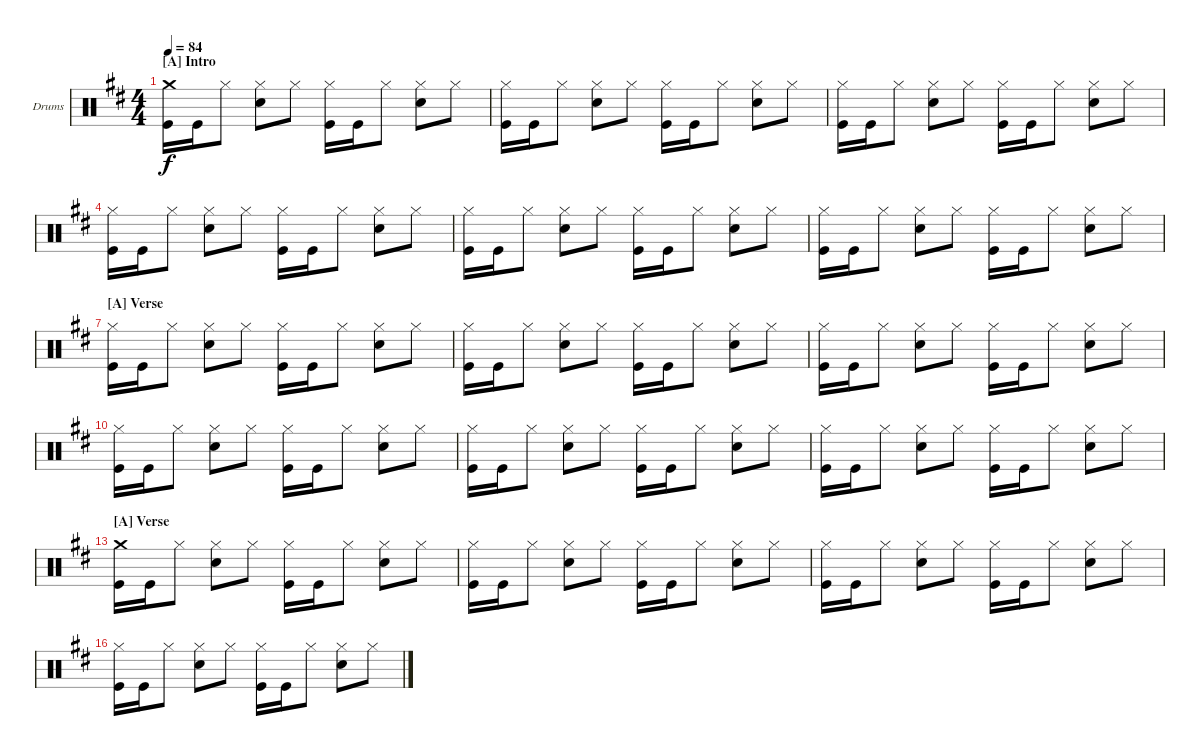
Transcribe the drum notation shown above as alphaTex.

\bracketExtendMode nobrackets
\firstSystemTrackNameOrientation horizontal
\otherSystemsTrackNameOrientation horizontal
\defaultBarNumberDisplay FirstOfSystem
\track ("Drumkit" "Drums") {instrument percussion}
\staff {score}
\articulation defaults
\ts (4 4)
\beaming (8 2 2 2 2)
\section ("A" "Intro")
\tempo 84
\clef neutral
\ks d
("Kick (hit)" "Crash medium (hit)").16{dy f} "Kick (hit)".16 "Hi-Hat (closed)".8 ("Snare (hit) 2" "Hi-Hat (closed)").8 "Hi-Hat (closed)".8 ("Kick (hit)" "Hi-Hat (closed)").16 "Kick (hit)".16 "Hi-Hat (closed)".8 ("Snare (hit) 2" "Hi-Hat (closed)").8 "Hi-Hat (closed)".8 |
("Kick (hit)" "Hi-Hat (closed)").16 "Kick (hit)".16 "Hi-Hat (closed)".8 ("Snare (hit) 2" "Hi-Hat (closed)").8 "Hi-Hat (closed)".8 ("Kick (hit)" "Hi-Hat (closed)").16 "Kick (hit)".16 "Hi-Hat (closed)".8 ("Snare (hit) 2" "Hi-Hat (closed)").8 "Hi-Hat (closed)".8 |
("Kick (hit)" "Hi-Hat (closed)").16 "Kick (hit)".16 "Hi-Hat (closed)".8 ("Snare (hit) 2" "Hi-Hat (closed)").8 "Hi-Hat (closed)".8 ("Kick (hit)" "Hi-Hat (closed)").16 "Kick (hit)".16 "Hi-Hat (closed)".8 ("Snare (hit) 2" "Hi-Hat (closed)").8 "Hi-Hat (closed)".8 |
("Kick (hit)" "Hi-Hat (closed)").16 "Kick (hit)".16 "Hi-Hat (closed)".8 ("Snare (hit) 2" "Hi-Hat (closed)").8 "Hi-Hat (closed)".8 ("Kick (hit)" "Hi-Hat (closed)").16 "Kick (hit)".16 "Hi-Hat (closed)".8 ("Snare (hit) 2" "Hi-Hat (closed)").8 "Hi-Hat (closed)".8 |
("Kick (hit)" "Hi-Hat (closed)").16 "Kick (hit)".16 "Hi-Hat (closed)".8 ("Snare (hit) 2" "Hi-Hat (closed)").8 "Hi-Hat (closed)".8 ("Kick (hit)" "Hi-Hat (closed)").16 "Kick (hit)".16 "Hi-Hat (closed)".8 ("Snare (hit) 2" "Hi-Hat (closed)").8 "Hi-Hat (closed)".8 |
("Kick (hit)" "Hi-Hat (closed)").16 "Kick (hit)".16 "Hi-Hat (closed)".8 ("Snare (hit) 2" "Hi-Hat (closed)").8 "Hi-Hat (closed)".8 ("Kick (hit)" "Hi-Hat (closed)").16 "Kick (hit)".16 "Hi-Hat (closed)".8 ("Snare (hit) 2" "Hi-Hat (closed)").8 "Hi-Hat (closed)".8 |
\section ("A" "Verse")
("Kick (hit)" "Hi-Hat (closed)").16 "Kick (hit)".16 "Hi-Hat (closed)".8 ("Snare (hit) 2" "Hi-Hat (closed)").8 "Hi-Hat (closed)".8 ("Kick (hit)" "Hi-Hat (closed)").16 "Kick (hit)".16 "Hi-Hat (closed)".8 ("Snare (hit) 2" "Hi-Hat (closed)").8 "Hi-Hat (closed)".8 |
("Kick (hit)" "Hi-Hat (closed)").16 "Kick (hit)".16 "Hi-Hat (closed)".8 ("Snare (hit) 2" "Hi-Hat (closed)").8 "Hi-Hat (closed)".8 ("Kick (hit)" "Hi-Hat (closed)").16 "Kick (hit)".16 "Hi-Hat (closed)".8 ("Snare (hit) 2" "Hi-Hat (closed)").8 "Hi-Hat (closed)".8 |
("Kick (hit)" "Hi-Hat (closed)").16 "Kick (hit)".16 "Hi-Hat (closed)".8 ("Snare (hit) 2" "Hi-Hat (closed)").8 "Hi-Hat (closed)".8 ("Kick (hit)" "Hi-Hat (closed)").16 "Kick (hit)".16 "Hi-Hat (closed)".8 ("Snare (hit) 2" "Hi-Hat (closed)").8 "Hi-Hat (closed)".8 |
("Kick (hit)" "Hi-Hat (closed)").16 "Kick (hit)".16 "Hi-Hat (closed)".8 ("Snare (hit) 2" "Hi-Hat (closed)").8 "Hi-Hat (closed)".8 ("Kick (hit)" "Hi-Hat (closed)").16 "Kick (hit)".16 "Hi-Hat (closed)".8 ("Snare (hit) 2" "Hi-Hat (closed)").8 "Hi-Hat (closed)".8 |
("Kick (hit)" "Hi-Hat (closed)").16 "Kick (hit)".16 "Hi-Hat (closed)".8 ("Snare (hit) 2" "Hi-Hat (closed)").8 "Hi-Hat (closed)".8 ("Kick (hit)" "Hi-Hat (closed)").16 "Kick (hit)".16 "Hi-Hat (closed)".8 ("Snare (hit) 2" "Hi-Hat (closed)").8 "Hi-Hat (closed)".8 |
("Kick (hit)" "Hi-Hat (closed)").16 "Kick (hit)".16 "Hi-Hat (closed)".8 ("Snare (hit) 2" "Hi-Hat (closed)").8 "Hi-Hat (closed)".8 ("Kick (hit)" "Hi-Hat (closed)").16 "Kick (hit)".16 "Hi-Hat (closed)".8 ("Snare (hit) 2" "Hi-Hat (closed)").8 "Hi-Hat (closed)".8 |
\section ("A" "Verse")
("Kick (hit)" "Crash medium (hit)").16 "Kick (hit)".16 "Hi-Hat (closed)".8 ("Snare (hit) 2" "Hi-Hat (closed)").8 "Hi-Hat (closed)".8 ("Kick (hit)" "Hi-Hat (closed)").16 "Kick (hit)".16 "Hi-Hat (closed)".8 ("Snare (hit) 2" "Hi-Hat (closed)").8 "Hi-Hat (closed)".8 |
("Kick (hit)" "Hi-Hat (closed)").16 "Kick (hit)".16 "Hi-Hat (closed)".8 ("Snare (hit) 2" "Hi-Hat (closed)").8 "Hi-Hat (closed)".8 ("Kick (hit)" "Hi-Hat (closed)").16 "Kick (hit)".16 "Hi-Hat (closed)".8 ("Snare (hit) 2" "Hi-Hat (closed)").8 "Hi-Hat (closed)".8 |
("Kick (hit)" "Hi-Hat (closed)").16 "Kick (hit)".16 "Hi-Hat (closed)".8 ("Snare (hit) 2" "Hi-Hat (closed)").8 "Hi-Hat (closed)".8 ("Kick (hit)" "Hi-Hat (closed)").16 "Kick (hit)".16 "Hi-Hat (closed)".8 ("Snare (hit) 2" "Hi-Hat (closed)").8 "Hi-Hat (closed)".8 |
("Kick (hit)" "Hi-Hat (closed)").16 "Kick (hit)".16 "Hi-Hat (closed)".8 ("Snare (hit) 2" "Hi-Hat (closed)").8 "Hi-Hat (closed)".8 ("Kick (hit)" "Hi-Hat (closed)").16 "Kick (hit)".16 "Hi-Hat (closed)".8 ("Snare (hit) 2" "Hi-Hat (closed)").8 "Hi-Hat (closed)".8
